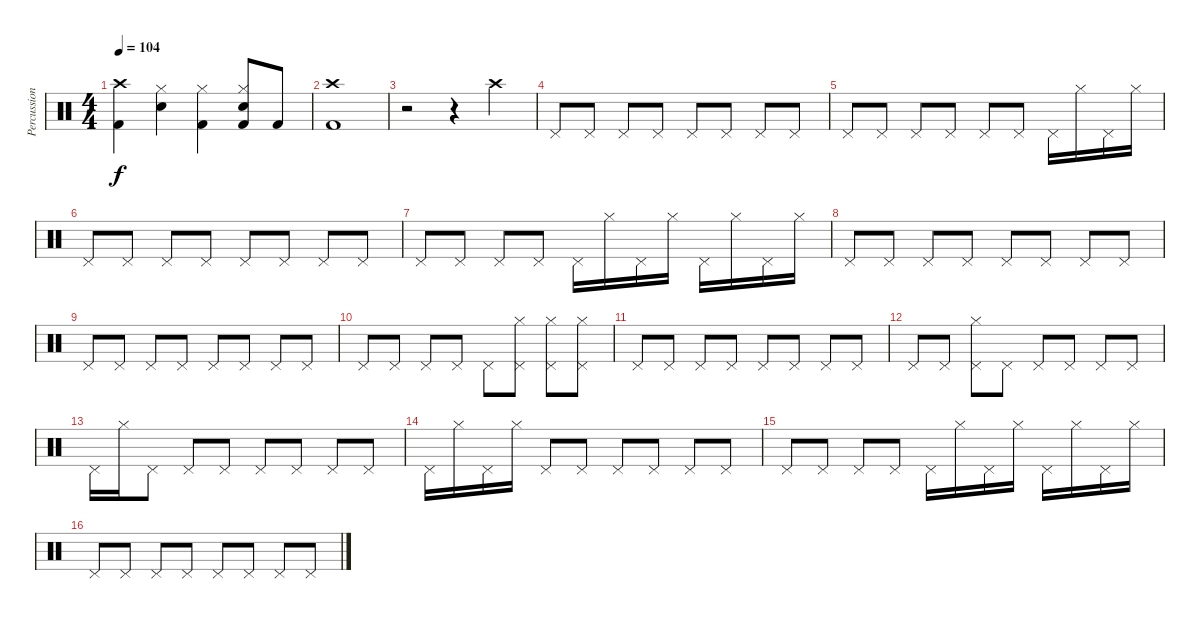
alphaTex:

\track ("Percussion" "Percussion") {instrument percussion}
\staff {score}
\articulation defaults
\ts (4 4)
\tempo 104
\clef neutral
\ks c
("Crash high (hit)" "Kick (hit) 2").4{dy f} ("Hi-Hat (closed)" "Snare (hit) 2").4 ("Hi-Hat (closed)" "Kick (hit) 2").4 ("Hi-Hat (closed)" "Snare (hit) 2" "Kick (hit) 2").8 "Kick (hit) 2".8 |
("Crash high (hit)" "Kick (hit) 2").1 |
r.2 r.4 "Crash high (hit)".4 |
"Pedal Hi-Hat (hit)".8 "Pedal Hi-Hat (hit)".8 "Pedal Hi-Hat (hit)".8 "Pedal Hi-Hat (hit)".8 "Pedal Hi-Hat (hit)".8 "Pedal Hi-Hat (hit)".8 "Pedal Hi-Hat (hit)".8 "Pedal Hi-Hat (hit)".8 |
"Pedal Hi-Hat (hit)".8 "Pedal Hi-Hat (hit)".8 "Pedal Hi-Hat (hit)".8 "Pedal Hi-Hat (hit)".8 "Pedal Hi-Hat (hit)".8 "Pedal Hi-Hat (hit)".8 "Pedal Hi-Hat (hit)".16 "Hi-Hat (closed)".16 "Pedal Hi-Hat (hit)".16 "Hi-Hat (closed)".16 |
"Pedal Hi-Hat (hit)".8 "Pedal Hi-Hat (hit)".8 "Pedal Hi-Hat (hit)".8 "Pedal Hi-Hat (hit)".8 "Pedal Hi-Hat (hit)".8 "Pedal Hi-Hat (hit)".8 "Pedal Hi-Hat (hit)".8 "Pedal Hi-Hat (hit)".8 |
"Pedal Hi-Hat (hit)".8 "Pedal Hi-Hat (hit)".8 "Pedal Hi-Hat (hit)".8 "Pedal Hi-Hat (hit)".8 "Pedal Hi-Hat (hit)".16 "Hi-Hat (closed)".16 "Pedal Hi-Hat (hit)".16 "Hi-Hat (closed)".16 "Pedal Hi-Hat (hit)".16 "Hi-Hat (closed)".16 "Pedal Hi-Hat (hit)".16 "Hi-Hat (closed)".16 |
"Pedal Hi-Hat (hit)".8 "Pedal Hi-Hat (hit)".8 "Pedal Hi-Hat (hit)".8 "Pedal Hi-Hat (hit)".8 "Pedal Hi-Hat (hit)".8 "Pedal Hi-Hat (hit)".8 "Pedal Hi-Hat (hit)".8 "Pedal Hi-Hat (hit)".8 |
"Pedal Hi-Hat (hit)".8 "Pedal Hi-Hat (hit)".8 "Pedal Hi-Hat (hit)".8 "Pedal Hi-Hat (hit)".8 "Pedal Hi-Hat (hit)".8 "Pedal Hi-Hat (hit)".8 "Pedal Hi-Hat (hit)".8 "Pedal Hi-Hat (hit)".8 |
"Pedal Hi-Hat (hit)".8 "Pedal Hi-Hat (hit)".8 "Pedal Hi-Hat (hit)".8 "Pedal Hi-Hat (hit)".8 "Pedal Hi-Hat (hit)".8 ("Hi-Hat (closed)" "Pedal Hi-Hat (hit)").8 ("Hi-Hat (closed)" "Pedal Hi-Hat (hit)").8 ("Hi-Hat (closed)" "Pedal Hi-Hat (hit)").8 |
"Pedal Hi-Hat (hit)".8 "Pedal Hi-Hat (hit)".8 "Pedal Hi-Hat (hit)".8 "Pedal Hi-Hat (hit)".8 "Pedal Hi-Hat (hit)".8 "Pedal Hi-Hat (hit)".8 "Pedal Hi-Hat (hit)".8 "Pedal Hi-Hat (hit)".8 |
"Pedal Hi-Hat (hit)".8 "Pedal Hi-Hat (hit)".8 ("Hi-Hat (closed)" "Pedal Hi-Hat (hit)").8 "Pedal Hi-Hat (hit)".8 "Pedal Hi-Hat (hit)".8 "Pedal Hi-Hat (hit)".8 "Pedal Hi-Hat (hit)".8 "Pedal Hi-Hat (hit)".8 |
"Pedal Hi-Hat (hit)".16 "Hi-Hat (closed)".16 "Pedal Hi-Hat (hit)".8 "Pedal Hi-Hat (hit)".8 "Pedal Hi-Hat (hit)".8 "Pedal Hi-Hat (hit)".8 "Pedal Hi-Hat (hit)".8 "Pedal Hi-Hat (hit)".8 "Pedal Hi-Hat (hit)".8 |
"Pedal Hi-Hat (hit)".16 "Hi-Hat (closed)".16 "Pedal Hi-Hat (hit)".16 "Hi-Hat (closed)".16 "Pedal Hi-Hat (hit)".8 "Pedal Hi-Hat (hit)".8 "Pedal Hi-Hat (hit)".8 "Pedal Hi-Hat (hit)".8 "Pedal Hi-Hat (hit)".8 "Pedal Hi-Hat (hit)".8 |
"Pedal Hi-Hat (hit)".8 "Pedal Hi-Hat (hit)".8 "Pedal Hi-Hat (hit)".8 "Pedal Hi-Hat (hit)".8 "Pedal Hi-Hat (hit)".16 "Hi-Hat (closed)".16 "Pedal Hi-Hat (hit)".16 "Hi-Hat (closed)".16 "Pedal Hi-Hat (hit)".16 "Hi-Hat (closed)".16 "Pedal Hi-Hat (hit)".16 "Hi-Hat (closed)".16 |
"Pedal Hi-Hat (hit)".8 "Pedal Hi-Hat (hit)".8 "Pedal Hi-Hat (hit)".8 "Pedal Hi-Hat (hit)".8 "Pedal Hi-Hat (hit)".8 "Pedal Hi-Hat (hit)".8 "Pedal Hi-Hat (hit)".8 "Pedal Hi-Hat (hit)".8
